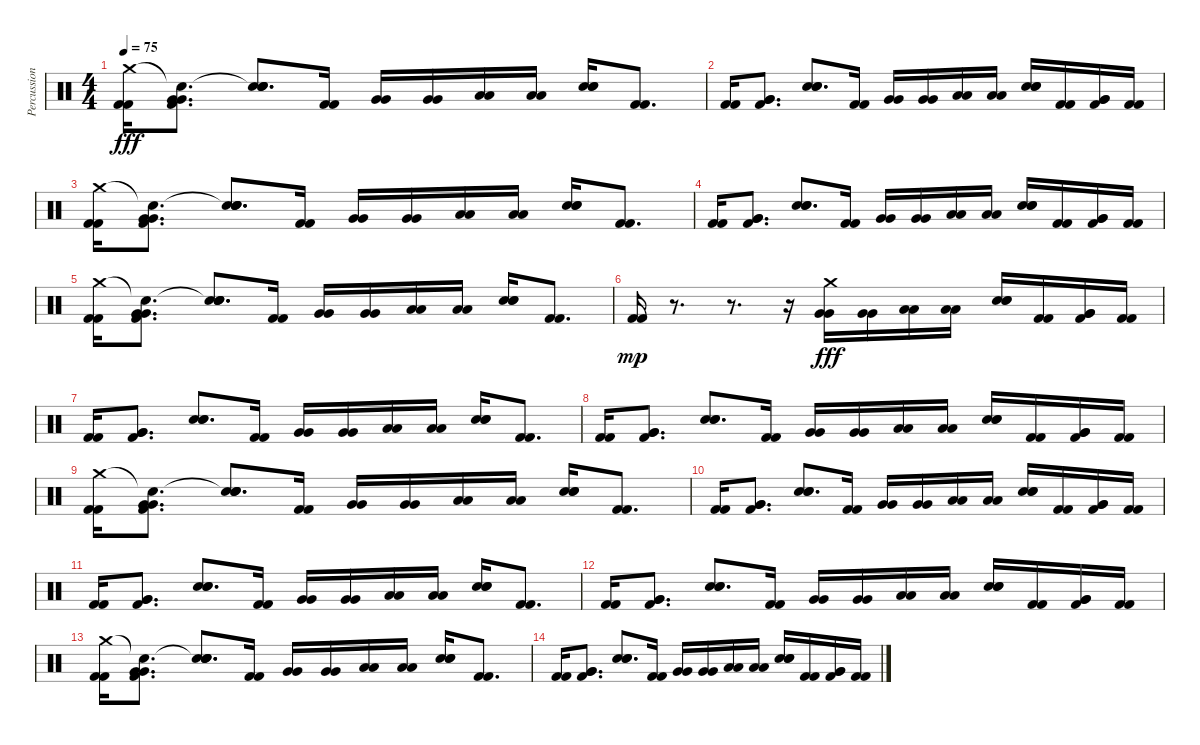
\track ("Percussion" "Percussion") {instrument percussion}
\staff {score}
\articulation defaults
\ts (4 4)
\tempo 75
\clef neutral
\ks c
("Crash medium (hit)" "Kick (hit) 2" "Kick (hit) 2").16{dy fff} ("Snare (hit)"{t} "Very Low Tom (hit)" "Very Low Tom (hit)" "Kick (hit) 2").8{d} ("Snare (hit)"{t} "Hand Clap (hit)" "Hand Clap (hit)" "Hand Clap (hit)").8{d} ("Kick (hit) 2" "Kick (hit) 2").16 ("Very Low Tom (hit)" "Very Low Tom (hit)").16 ("Very Low Tom (hit)" "Very Low Tom (hit)").16 ("Low Floor Tom (hit)" "Low Floor Tom (hit)").16 ("Low Floor Tom (hit)" "Low Floor Tom (hit)").16 ("Hand Clap (hit)" "Hand Clap (hit)" "Hand Clap (hit)").16 ("Kick (hit) 2" "Kick (hit) 2").8{d} |
("Kick (hit) 2" "Kick (hit) 2").16 ("Very Low Tom (hit)" "Very Low Tom (hit)" "Kick (hit) 2").8{d} ("Hand Clap (hit)" "Hand Clap (hit)" "Hand Clap (hit)").8{d} ("Kick (hit) 2" "Kick (hit) 2").16 ("Very Low Tom (hit)" "Very Low Tom (hit)").16 ("Very Low Tom (hit)" "Very Low Tom (hit)").16 ("Low Floor Tom (hit)" "Low Floor Tom (hit)").16 ("Low Floor Tom (hit)" "Low Floor Tom (hit)").16 ("Hand Clap (hit)" "Hand Clap (hit)" "Hand Clap (hit)").16 ("Kick (hit) 2" "Kick (hit) 2").16 ("Very Low Tom (hit)" "Very Low Tom (hit)" "Kick (hit) 2").16 ("Kick (hit) 2" "Kick (hit) 2").16 |
("Crash medium (hit)" "Kick (hit) 2" "Kick (hit) 2").16 ("Snare (hit)"{t} "Very Low Tom (hit)" "Very Low Tom (hit)" "Kick (hit) 2").8{d} ("Snare (hit)"{t} "Hand Clap (hit)" "Hand Clap (hit)" "Hand Clap (hit)").8{d} ("Kick (hit) 2" "Kick (hit) 2").16 ("Very Low Tom (hit)" "Very Low Tom (hit)").16 ("Very Low Tom (hit)" "Very Low Tom (hit)").16 ("Low Floor Tom (hit)" "Low Floor Tom (hit)").16 ("Low Floor Tom (hit)" "Low Floor Tom (hit)").16 ("Hand Clap (hit)" "Hand Clap (hit)" "Hand Clap (hit)").16 ("Kick (hit) 2" "Kick (hit) 2").8{d} |
("Kick (hit) 2" "Kick (hit) 2").16 ("Very Low Tom (hit)" "Very Low Tom (hit)" "Kick (hit) 2").8{d} ("Hand Clap (hit)" "Hand Clap (hit)" "Hand Clap (hit)").8{d} ("Kick (hit) 2" "Kick (hit) 2").16 ("Very Low Tom (hit)" "Very Low Tom (hit)").16 ("Very Low Tom (hit)" "Very Low Tom (hit)").16 ("Low Floor Tom (hit)" "Low Floor Tom (hit)").16 ("Low Floor Tom (hit)" "Low Floor Tom (hit)").16 ("Hand Clap (hit)" "Hand Clap (hit)" "Hand Clap (hit)").16 ("Kick (hit) 2" "Kick (hit) 2").16 ("Very Low Tom (hit)" "Very Low Tom (hit)" "Kick (hit) 2").16 ("Kick (hit) 2" "Kick (hit) 2").16 |
("Crash medium (hit)" "Kick (hit) 2" "Kick (hit) 2").16 ("Snare (hit)"{t} "Very Low Tom (hit)" "Very Low Tom (hit)" "Kick (hit) 2").8{d} ("Snare (hit)"{t} "Hand Clap (hit)" "Hand Clap (hit)" "Hand Clap (hit)").8{d} ("Kick (hit) 2" "Kick (hit) 2").16 ("Very Low Tom (hit)" "Very Low Tom (hit)").16 ("Very Low Tom (hit)" "Very Low Tom (hit)").16 ("Low Floor Tom (hit)" "Low Floor Tom (hit)").16 ("Low Floor Tom (hit)" "Low Floor Tom (hit)").16 ("Hand Clap (hit)" "Hand Clap (hit)" "Hand Clap (hit)").16 ("Kick (hit) 2" "Kick (hit) 2").8{d} |
("Kick (hit) 2" "Kick (hit) 2").16{dy mp} r.8{d} r.8{d} r.16 ("Crash medium (hit)" "Very Low Tom (hit)" "Very Low Tom (hit)").16{dy fff} ("Very Low Tom (hit)" "Very Low Tom (hit)").16 ("Low Floor Tom (hit)" "Low Floor Tom (hit)").16 ("Low Floor Tom (hit)" "Low Floor Tom (hit)").16 ("Hand Clap (hit)" "Hand Clap (hit)" "Hand Clap (hit)").16 ("Kick (hit) 2" "Kick (hit) 2").16 ("Very Low Tom (hit)" "Very Low Tom (hit)" "Kick (hit) 2").16 ("Kick (hit) 2" "Kick (hit) 2").16 |
("Kick (hit) 2" "Kick (hit) 2").16 ("Very Low Tom (hit)" "Very Low Tom (hit)" "Kick (hit) 2").8{d} ("Hand Clap (hit)" "Hand Clap (hit)" "Hand Clap (hit)").8{d} ("Kick (hit) 2" "Kick (hit) 2").16 ("Very Low Tom (hit)" "Very Low Tom (hit)").16 ("Very Low Tom (hit)" "Very Low Tom (hit)").16 ("Low Floor Tom (hit)" "Low Floor Tom (hit)").16 ("Low Floor Tom (hit)" "Low Floor Tom (hit)").16 ("Hand Clap (hit)" "Hand Clap (hit)" "Hand Clap (hit)").16 ("Kick (hit) 2" "Kick (hit) 2").8{d} |
("Kick (hit) 2" "Kick (hit) 2").16 ("Very Low Tom (hit)" "Very Low Tom (hit)" "Kick (hit) 2").8{d} ("Hand Clap (hit)" "Hand Clap (hit)" "Hand Clap (hit)").8{d} ("Kick (hit) 2" "Kick (hit) 2").16 ("Very Low Tom (hit)" "Very Low Tom (hit)").16 ("Very Low Tom (hit)" "Very Low Tom (hit)").16 ("Low Floor Tom (hit)" "Low Floor Tom (hit)").16 ("Low Floor Tom (hit)" "Low Floor Tom (hit)").16 ("Hand Clap (hit)" "Hand Clap (hit)" "Hand Clap (hit)").16 ("Kick (hit) 2" "Kick (hit) 2").16 ("Very Low Tom (hit)" "Very Low Tom (hit)" "Kick (hit) 2").16 ("Kick (hit) 2" "Kick (hit) 2").16 |
("Crash medium (hit)" "Kick (hit) 2" "Kick (hit) 2").16 ("Snare (hit)"{t} "Very Low Tom (hit)" "Very Low Tom (hit)" "Kick (hit) 2").8{d} ("Snare (hit)"{t} "Hand Clap (hit)" "Hand Clap (hit)" "Hand Clap (hit)").8{d} ("Kick (hit) 2" "Kick (hit) 2").16 ("Very Low Tom (hit)" "Very Low Tom (hit)").16 ("Very Low Tom (hit)" "Very Low Tom (hit)").16 ("Low Floor Tom (hit)" "Low Floor Tom (hit)").16 ("Low Floor Tom (hit)" "Low Floor Tom (hit)").16 ("Hand Clap (hit)" "Hand Clap (hit)" "Hand Clap (hit)").16 ("Kick (hit) 2" "Kick (hit) 2").8{d} |
("Kick (hit) 2" "Kick (hit) 2").16 ("Very Low Tom (hit)" "Very Low Tom (hit)" "Kick (hit) 2").8{d} ("Hand Clap (hit)" "Hand Clap (hit)" "Hand Clap (hit)").8{d} ("Kick (hit) 2" "Kick (hit) 2").16 ("Very Low Tom (hit)" "Very Low Tom (hit)").16 ("Very Low Tom (hit)" "Very Low Tom (hit)").16 ("Low Floor Tom (hit)" "Low Floor Tom (hit)").16 ("Low Floor Tom (hit)" "Low Floor Tom (hit)").16 ("Hand Clap (hit)" "Hand Clap (hit)" "Hand Clap (hit)").16 ("Kick (hit) 2" "Kick (hit) 2").16 ("Very Low Tom (hit)" "Very Low Tom (hit)" "Kick (hit) 2").16 ("Kick (hit) 2" "Kick (hit) 2").16 |
("Kick (hit) 2" "Kick (hit) 2").16 ("Very Low Tom (hit)" "Very Low Tom (hit)" "Kick (hit) 2").8{d} ("Hand Clap (hit)" "Hand Clap (hit)" "Hand Clap (hit)").8{d} ("Kick (hit) 2" "Kick (hit) 2").16 ("Very Low Tom (hit)" "Very Low Tom (hit)").16 ("Very Low Tom (hit)" "Very Low Tom (hit)").16 ("Low Floor Tom (hit)" "Low Floor Tom (hit)").16 ("Low Floor Tom (hit)" "Low Floor Tom (hit)").16 ("Hand Clap (hit)" "Hand Clap (hit)" "Hand Clap (hit)").16 ("Kick (hit) 2" "Kick (hit) 2").8{d} |
("Kick (hit) 2" "Kick (hit) 2").16 ("Very Low Tom (hit)" "Very Low Tom (hit)" "Kick (hit) 2").8{d} ("Hand Clap (hit)" "Hand Clap (hit)" "Hand Clap (hit)").8{d} ("Kick (hit) 2" "Kick (hit) 2").16 ("Very Low Tom (hit)" "Very Low Tom (hit)").16 ("Very Low Tom (hit)" "Very Low Tom (hit)").16 ("Low Floor Tom (hit)" "Low Floor Tom (hit)").16 ("Low Floor Tom (hit)" "Low Floor Tom (hit)").16 ("Hand Clap (hit)" "Hand Clap (hit)" "Hand Clap (hit)").16 ("Kick (hit) 2" "Kick (hit) 2").16 ("Very Low Tom (hit)" "Very Low Tom (hit)" "Kick (hit) 2").16 ("Kick (hit) 2" "Kick (hit) 2").16 |
("Crash medium (hit)" "Kick (hit) 2" "Kick (hit) 2").16 ("Snare (hit)"{t} "Very Low Tom (hit)" "Very Low Tom (hit)" "Kick (hit) 2").8{d} ("Snare (hit)"{t} "Hand Clap (hit)" "Hand Clap (hit)" "Hand Clap (hit)").8{d} ("Kick (hit) 2" "Kick (hit) 2").16 ("Very Low Tom (hit)" "Very Low Tom (hit)").16 ("Very Low Tom (hit)" "Very Low Tom (hit)").16 ("Low Floor Tom (hit)" "Low Floor Tom (hit)").16 ("Low Floor Tom (hit)" "Low Floor Tom (hit)").16 ("Hand Clap (hit)" "Hand Clap (hit)" "Hand Clap (hit)").16 ("Kick (hit) 2" "Kick (hit) 2").8{d} |
("Kick (hit) 2" "Kick (hit) 2").16 ("Very Low Tom (hit)" "Very Low Tom (hit)" "Kick (hit) 2").8{d} ("Hand Clap (hit)" "Hand Clap (hit)" "Hand Clap (hit)").8{d} ("Kick (hit) 2" "Kick (hit) 2").16 ("Very Low Tom (hit)" "Very Low Tom (hit)").16 ("Very Low Tom (hit)" "Very Low Tom (hit)").16 ("Low Floor Tom (hit)" "Low Floor Tom (hit)").16 ("Low Floor Tom (hit)" "Low Floor Tom (hit)").16 ("Hand Clap (hit)" "Hand Clap (hit)" "Hand Clap (hit)").16 ("Kick (hit) 2" "Kick (hit) 2").16 ("Very Low Tom (hit)" "Very Low Tom (hit)" "Kick (hit) 2").16 ("Kick (hit) 2" "Kick (hit) 2").16
